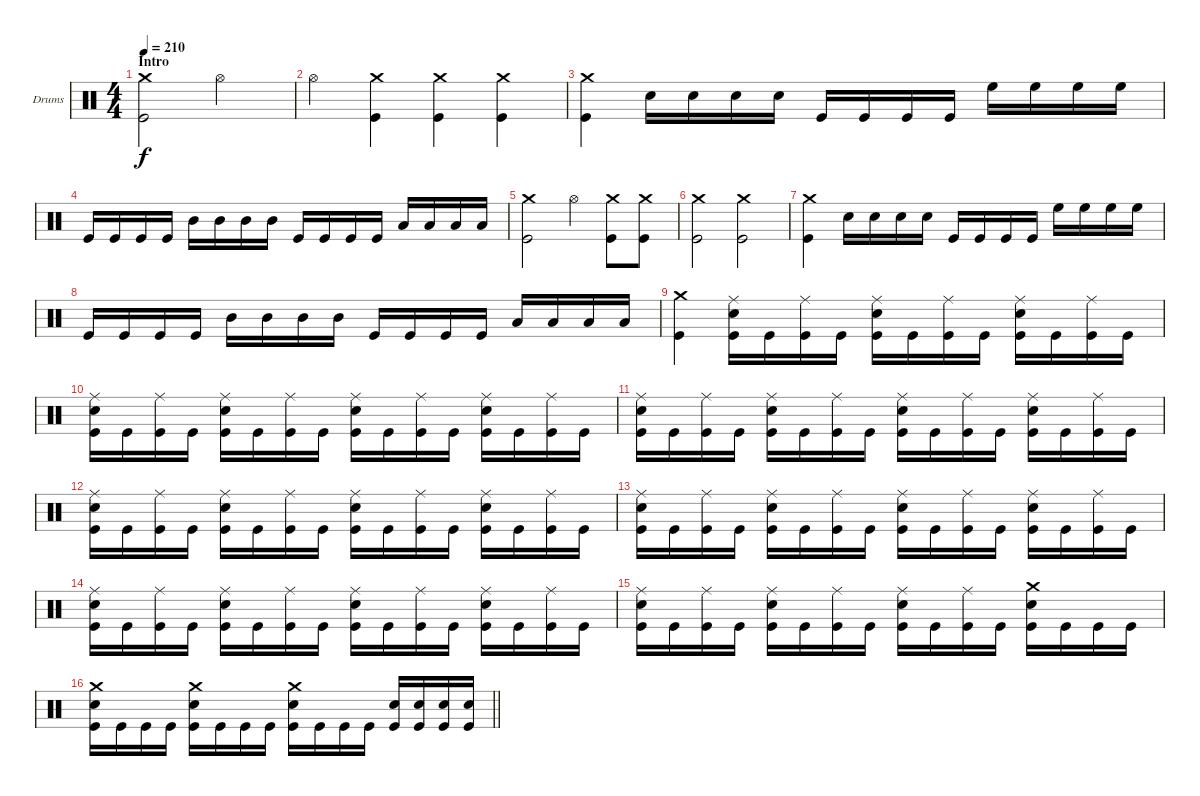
\bracketExtendMode groupsimilarinstruments
\firstSystemTrackNameOrientation horizontal
\otherSystemsTrackNameOrientation horizontal
\track ("Drumkit" "Drums") {instrument percussion}
\staff {score}
\articulation defaults
\ts (4 4)
\beaming (8 2 2 2 2)
\section ("" "Intro")
\tempo 210
\clef neutral
\ks c
("Crash medium (hit)" "Kick (hit)").2{dy f} "Hi-Hat (open)".2 |
"Hi-Hat (open)".4 ("Crash medium (hit)" "Kick (hit)").4 ("Crash medium (hit)" "Kick (hit)").4 ("Crash medium (hit)" "Kick (hit)").4 |
("Crash medium (hit)" "Kick (hit)").4 "Snare (hit) 2".16 "Snare (hit) 2".16 "Snare (hit) 2".16 "Snare (hit) 2".16 "Kick (hit)".16 "Kick (hit)".16 "Kick (hit)".16 "Kick (hit)".16 "High Floor Tom (hit)".16 "High Floor Tom (hit)".16 "High Floor Tom (hit)".16 "High Floor Tom (hit)".16 |
"Kick (hit)".16 "Kick (hit)".16 "Kick (hit)".16 "Kick (hit)".16 "Mid Tom (hit)".16 "Mid Tom (hit)".16 "Mid Tom (hit)".16 "Mid Tom (hit)".16 "Kick (hit)".16 "Kick (hit)".16 "Kick (hit)".16 "Kick (hit)".16 "Low Tom (hit)".16 "Low Tom (hit)".16 "Low Tom (hit)".16 "Low Tom (hit)".16 |
("Crash medium (hit)" "Kick (hit)").2 "Hi-Hat (open)".4 ("Crash medium (hit)" "Kick (hit)").8 ("Crash medium (hit)" "Kick (hit)").8 |
("Crash medium (hit)" "Kick (hit)").2 ("Crash medium (hit)" "Kick (hit)").2 |
("Crash medium (hit)" "Kick (hit)").4 "Snare (hit) 2".16 "Snare (hit) 2".16 "Snare (hit) 2".16 "Snare (hit) 2".16 "Kick (hit)".16 "Kick (hit)".16 "Kick (hit)".16 "Kick (hit)".16 "High Floor Tom (hit)".16 "High Floor Tom (hit)".16 "High Floor Tom (hit)".16 "High Floor Tom (hit)".16 |
"Kick (hit)".16 "Kick (hit)".16 "Kick (hit)".16 "Kick (hit)".16 "Mid Tom (hit)".16 "Mid Tom (hit)".16 "Mid Tom (hit)".16 "Mid Tom (hit)".16 "Kick (hit)".16 "Kick (hit)".16 "Kick (hit)".16 "Kick (hit)".16 "Low Tom (hit)".16 "Low Tom (hit)".16 "Low Tom (hit)".16 "Low Tom (hit)".16 |
("Crash medium (hit)" "Kick (hit)").4 ("Ride (middle)" "Snare (hit) 2" "Kick (hit)").16 "Kick (hit)".16 ("Ride (middle)" "Kick (hit)").16 "Kick (hit)".16 ("Ride (middle)" "Snare (hit) 2" "Kick (hit)").16 "Kick (hit)".16 ("Ride (middle)" "Kick (hit)").16 "Kick (hit)".16 ("Ride (middle)" "Snare (hit) 2" "Kick (hit)").16 "Kick (hit)".16 ("Ride (middle)" "Kick (hit)").16 "Kick (hit)".16 |
("Ride (middle)" "Snare (hit) 2" "Kick (hit)").16 "Kick (hit)".16 ("Ride (middle)" "Kick (hit)").16 "Kick (hit)".16 ("Ride (middle)" "Snare (hit) 2" "Kick (hit)").16 "Kick (hit)".16 ("Ride (middle)" "Kick (hit)").16 "Kick (hit)".16 ("Ride (middle)" "Snare (hit) 2" "Kick (hit)").16 "Kick (hit)".16 ("Ride (middle)" "Kick (hit)").16 "Kick (hit)".16 ("Ride (middle)" "Snare (hit) 2" "Kick (hit)").16 "Kick (hit)".16 ("Ride (middle)" "Kick (hit)").16 "Kick (hit)".16 |
("Ride (middle)" "Snare (hit) 2" "Kick (hit)").16 "Kick (hit)".16 ("Ride (middle)" "Kick (hit)").16 "Kick (hit)".16 ("Ride (middle)" "Snare (hit) 2" "Kick (hit)").16 "Kick (hit)".16 ("Ride (middle)" "Kick (hit)").16 "Kick (hit)".16 ("Ride (middle)" "Snare (hit) 2" "Kick (hit)").16 "Kick (hit)".16 ("Ride (middle)" "Kick (hit)").16 "Kick (hit)".16 ("Ride (middle)" "Snare (hit) 2" "Kick (hit)").16 "Kick (hit)".16 ("Ride (middle)" "Kick (hit)").16 "Kick (hit)".16 |
("Ride (middle)" "Snare (hit) 2" "Kick (hit)").16 "Kick (hit)".16 ("Ride (middle)" "Kick (hit)").16 "Kick (hit)".16 ("Ride (middle)" "Snare (hit) 2" "Kick (hit)").16 "Kick (hit)".16 ("Ride (middle)" "Kick (hit)").16 "Kick (hit)".16 ("Ride (middle)" "Snare (hit) 2" "Kick (hit)").16 "Kick (hit)".16 ("Ride (middle)" "Kick (hit)").16 "Kick (hit)".16 ("Ride (middle)" "Snare (hit) 2" "Kick (hit)").16 "Kick (hit)".16 ("Ride (middle)" "Kick (hit)").16 "Kick (hit)".16 |
("Ride (middle)" "Snare (hit) 2" "Kick (hit)").16 "Kick (hit)".16 ("Ride (middle)" "Kick (hit)").16 "Kick (hit)".16 ("Ride (middle)" "Snare (hit) 2" "Kick (hit)").16 "Kick (hit)".16 ("Ride (middle)" "Kick (hit)").16 "Kick (hit)".16 ("Ride (middle)" "Snare (hit) 2" "Kick (hit)").16 "Kick (hit)".16 ("Ride (middle)" "Kick (hit)").16 "Kick (hit)".16 ("Ride (middle)" "Snare (hit) 2" "Kick (hit)").16 "Kick (hit)".16 ("Ride (middle)" "Kick (hit)").16 "Kick (hit)".16 |
("Ride (middle)" "Snare (hit) 2" "Kick (hit)").16 "Kick (hit)".16 ("Ride (middle)" "Kick (hit)").16 "Kick (hit)".16 ("Ride (middle)" "Snare (hit) 2" "Kick (hit)").16 "Kick (hit)".16 ("Ride (middle)" "Kick (hit)").16 "Kick (hit)".16 ("Ride (middle)" "Snare (hit) 2" "Kick (hit)").16 "Kick (hit)".16 ("Ride (middle)" "Kick (hit)").16 "Kick (hit)".16 ("Ride (middle)" "Snare (hit) 2" "Kick (hit)").16 "Kick (hit)".16 ("Ride (middle)" "Kick (hit)").16 "Kick (hit)".16 |
("Ride (middle)" "Snare (hit) 2" "Kick (hit)").16 "Kick (hit)".16 ("Ride (middle)" "Kick (hit)").16 "Kick (hit)".16 ("Ride (middle)" "Snare (hit) 2" "Kick (hit)").16 "Kick (hit)".16 ("Ride (middle)" "Kick (hit)").16 "Kick (hit)".16 ("Ride (middle)" "Snare (hit) 2" "Kick (hit)").16 "Kick (hit)".16 ("Ride (middle)" "Kick (hit)").16 "Kick (hit)".16 ("Crash medium (hit)" "Snare (hit) 2" "Kick (hit)").16 "Kick (hit)".16 "Kick (hit)".16 "Kick (hit)".16 |
\barLineRight lightlight
("Crash medium (hit)" "Snare (hit) 2" "Kick (hit)").16 "Kick (hit)".16 "Kick (hit)".16 "Kick (hit)".16 ("Crash medium (hit)" "Snare (hit) 2" "Kick (hit)").16 "Kick (hit)".16 "Kick (hit)".16 "Kick (hit)".16 ("Crash medium (hit)" "Snare (hit) 2" "Kick (hit)").16 "Kick (hit)".16 "Kick (hit)".16 "Kick (hit)".16 ("Snare (hit) 2" "Kick (hit)").16 ("Snare (hit) 2" "Kick (hit)").16 ("Snare (hit) 2" "Kick (hit)").16 ("Snare (hit) 2" "Kick (hit)").16
